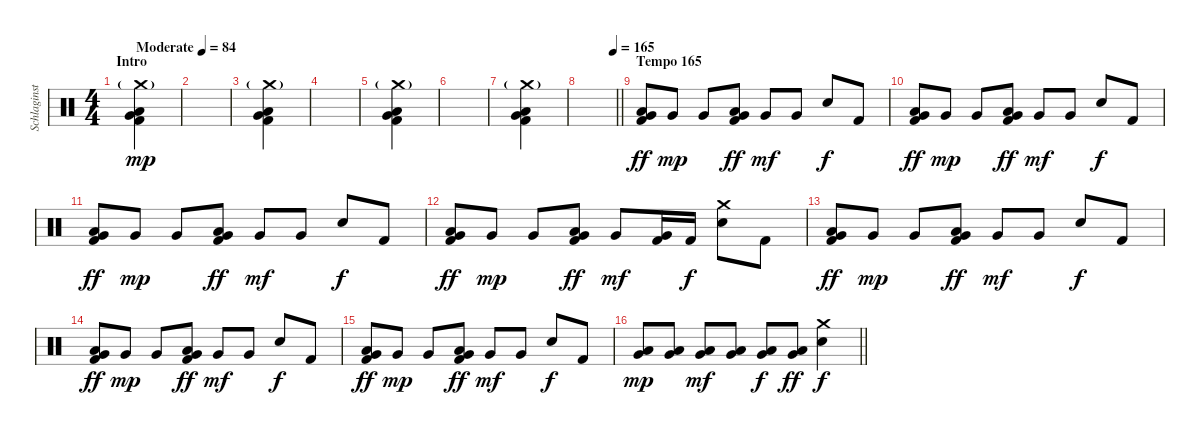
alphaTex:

\track ("Schlaginstrumente - Auswahl" "Schlaginst") {instrument percussion}
\staff {score}
\articulation defaults
\ts (4 4)
\section ("" "Intro")
\tempo (84 "Moderate")
\clef neutral
\ks c
("Crash medium (hit)"{g} "Very Low Tom (hit)" "Low Floor Tom (hit)" "Kick (hit) 2").4{dy mp} |
|
("Crash medium (hit)"{g} "Very Low Tom (hit)" "Low Floor Tom (hit)" "Kick (hit) 2").4 |
|
("Crash medium (hit)"{g} "Very Low Tom (hit)" "Low Floor Tom (hit)" "Kick (hit) 2").4 |
|
("Crash medium (hit)"{g} "Very Low Tom (hit)" "Low Floor Tom (hit)" "Kick (hit) 2").4 |
\tempo (165 0.9375)
\barLineRight lightlight
|
\section ("" "Tempo 165")
("Very Low Tom (hit)" "Low Floor Tom (hit)" "Kick (hit) 2").8{dy ff} "Very Low Tom (hit)".8{dy mp} "Very Low Tom (hit)".8 ("Very Low Tom (hit)" "Low Floor Tom (hit)" "Kick (hit) 2").8{dy ff} "Very Low Tom (hit)".8{dy mf} "Very Low Tom (hit)".8 "Electric Snare (hit)".8{dy f} "Kick (hit) 2".8 |
("Very Low Tom (hit)" "Low Floor Tom (hit)" "Kick (hit) 2").8{dy ff} "Very Low Tom (hit)".8{dy mp} "Very Low Tom (hit)".8 ("Very Low Tom (hit)" "Low Floor Tom (hit)" "Kick (hit) 2").8{dy ff} "Very Low Tom (hit)".8{dy mf} "Very Low Tom (hit)".8 "Electric Snare (hit)".8{dy f} "Kick (hit) 2".8 |
("Very Low Tom (hit)" "Low Floor Tom (hit)" "Kick (hit) 2").8{dy ff} "Very Low Tom (hit)".8{dy mp} "Very Low Tom (hit)".8 ("Very Low Tom (hit)" "Low Floor Tom (hit)" "Kick (hit) 2").8{dy ff} "Very Low Tom (hit)".8{dy mf} "Very Low Tom (hit)".8 "Electric Snare (hit)".8{dy f} "Kick (hit) 2".8 |
("Very Low Tom (hit)" "Low Floor Tom (hit)" "Kick (hit) 2").8{dy ff} "Very Low Tom (hit)".8{dy mp} "Very Low Tom (hit)".8 ("Very Low Tom (hit)" "Low Floor Tom (hit)" "Kick (hit) 2").8{dy ff} "Very Low Tom (hit)".8{dy mf} ("Very Low Tom (hit)" "Kick (hit) 2").16 "Kick (hit) 2".16{dy f} ("Crash medium (hit)" "Electric Snare (hit)").8 "Kick (hit) 2".8 |
("Very Low Tom (hit)" "Low Floor Tom (hit)" "Kick (hit) 2").8{dy ff} "Very Low Tom (hit)".8{dy mp} "Very Low Tom (hit)".8 ("Very Low Tom (hit)" "Low Floor Tom (hit)" "Kick (hit) 2").8{dy ff} "Very Low Tom (hit)".8{dy mf} "Very Low Tom (hit)".8 "Electric Snare (hit)".8{dy f} "Kick (hit) 2".8 |
("Very Low Tom (hit)" "Low Floor Tom (hit)" "Kick (hit) 2").8{dy ff} "Very Low Tom (hit)".8{dy mp} "Very Low Tom (hit)".8 ("Very Low Tom (hit)" "Low Floor Tom (hit)" "Kick (hit) 2").8{dy ff} "Very Low Tom (hit)".8{dy mf} "Very Low Tom (hit)".8 "Electric Snare (hit)".8{dy f} "Kick (hit) 2".8 |
("Very Low Tom (hit)" "Low Floor Tom (hit)" "Kick (hit) 2").8{dy ff} "Very Low Tom (hit)".8{dy mp} "Very Low Tom (hit)".8 ("Very Low Tom (hit)" "Low Floor Tom (hit)" "Kick (hit) 2").8{dy ff} "Very Low Tom (hit)".8{dy mf} "Very Low Tom (hit)".8 "Electric Snare (hit)".8{dy f} "Kick (hit) 2".8 |
\barLineRight lightlight
("Very Low Tom (hit)" "Low Floor Tom (hit)").8{dy mp} ("Very Low Tom (hit)" "Low Floor Tom (hit)").8 ("Very Low Tom (hit)" "Low Floor Tom (hit)").8{dy mf} ("Very Low Tom (hit)" "Low Floor Tom (hit)").8 ("Very Low Tom (hit)" "Low Floor Tom (hit)").8{dy f} ("Very Low Tom (hit)" "Low Floor Tom (hit)").8{dy ff} ("Crash medium (hit)" "Electric Snare (hit)").4{dy f}
